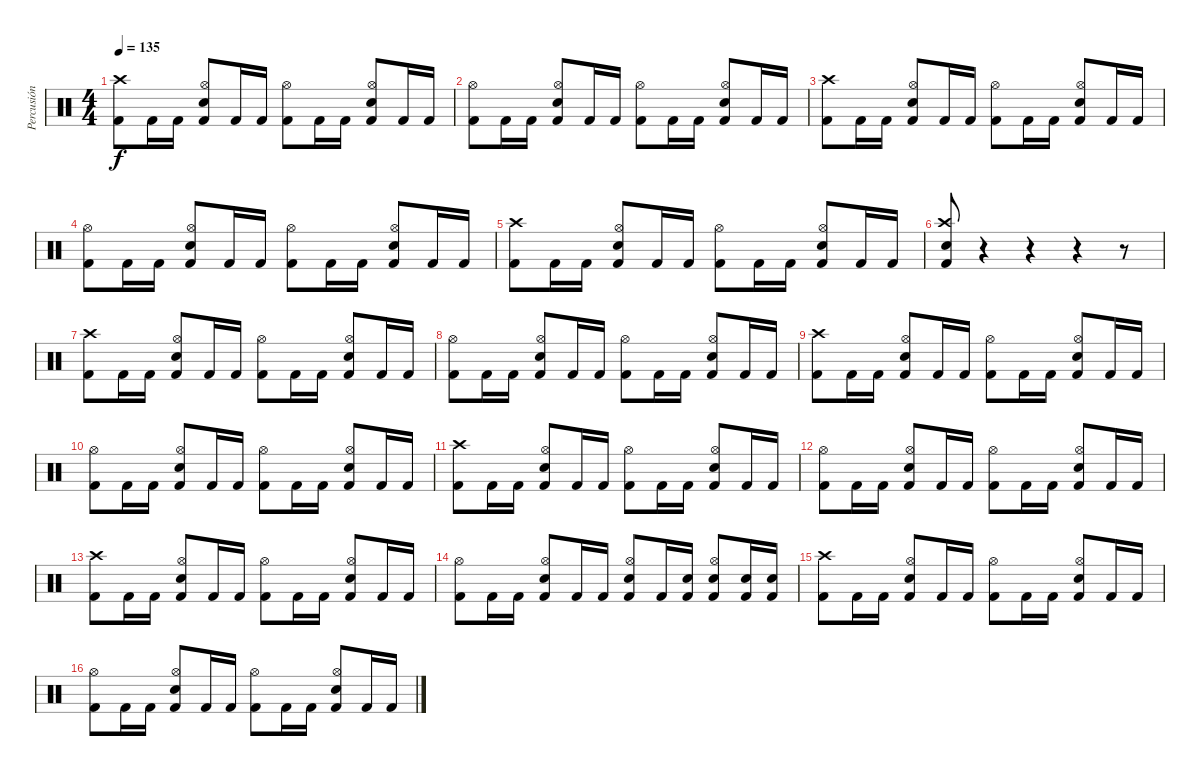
\track ("Percusión" "Percusión") {instrument percussion}
\staff {score}
\articulation defaults
\ts (4 4)
\tempo 135
\clef neutral
\ks c
("Kick (hit) 2" "Crash high (hit)").8{dy f} "Kick (hit) 2".16 "Kick (hit) 2".16 ("Kick (hit) 2" "Hi-Hat (open)" "Snare (hit) 2").8 "Kick (hit) 2".16 "Kick (hit) 2".16 ("Kick (hit) 2" "Hi-Hat (open)").8 "Kick (hit) 2".16 "Kick (hit) 2".16 ("Kick (hit) 2" "Hi-Hat (open)" "Snare (hit) 2").8 "Kick (hit) 2".16 "Kick (hit) 2".16 |
("Kick (hit) 2" "Hi-Hat (open)").8 "Kick (hit) 2".16 "Kick (hit) 2".16 ("Kick (hit) 2" "Hi-Hat (open)" "Snare (hit) 2").8 "Kick (hit) 2".16 "Kick (hit) 2".16 ("Kick (hit) 2" "Hi-Hat (open)").8 "Kick (hit) 2".16 "Kick (hit) 2".16 ("Kick (hit) 2" "Hi-Hat (open)" "Snare (hit) 2").8 "Kick (hit) 2".16 "Kick (hit) 2".16 |
("Kick (hit) 2" "Crash high (hit)").8 "Kick (hit) 2".16 "Kick (hit) 2".16 ("Kick (hit) 2" "Hi-Hat (open)" "Snare (hit) 2").8 "Kick (hit) 2".16 "Kick (hit) 2".16 ("Kick (hit) 2" "Hi-Hat (open)").8 "Kick (hit) 2".16 "Kick (hit) 2".16 ("Kick (hit) 2" "Hi-Hat (open)" "Snare (hit) 2").8 "Kick (hit) 2".16 "Kick (hit) 2".16 |
("Kick (hit) 2" "Hi-Hat (open)").8 "Kick (hit) 2".16 "Kick (hit) 2".16 ("Kick (hit) 2" "Hi-Hat (open)" "Snare (hit) 2").8 "Kick (hit) 2".16 "Kick (hit) 2".16 ("Kick (hit) 2" "Hi-Hat (open)").8 "Kick (hit) 2".16 "Kick (hit) 2".16 ("Kick (hit) 2" "Hi-Hat (open)" "Snare (hit) 2").8 "Kick (hit) 2".16 "Kick (hit) 2".16 |
("Kick (hit) 2" "Crash high (hit)").8 "Kick (hit) 2".16 "Kick (hit) 2".16 ("Kick (hit) 2" "Hi-Hat (open)" "Snare (hit) 2").8 "Kick (hit) 2".16 "Kick (hit) 2".16 ("Kick (hit) 2" "Hi-Hat (open)").8 "Kick (hit) 2".16 "Kick (hit) 2".16 ("Kick (hit) 2" "Hi-Hat (open)" "Snare (hit) 2").8 "Kick (hit) 2".16 "Kick (hit) 2".16 |
("Kick (hit) 2" "Snare (hit) 2" "Crash high (hit)").8 r.4 r.4 r.4 r.8 |
("Kick (hit) 2" "Crash high (hit)").8 "Kick (hit) 2".16 "Kick (hit) 2".16 ("Kick (hit) 2" "Hi-Hat (open)" "Snare (hit) 2").8 "Kick (hit) 2".16 "Kick (hit) 2".16 ("Kick (hit) 2" "Hi-Hat (open)").8 "Kick (hit) 2".16 "Kick (hit) 2".16 ("Kick (hit) 2" "Hi-Hat (open)" "Snare (hit) 2").8 "Kick (hit) 2".16 "Kick (hit) 2".16 |
("Kick (hit) 2" "Hi-Hat (open)").8 "Kick (hit) 2".16 "Kick (hit) 2".16 ("Kick (hit) 2" "Hi-Hat (open)" "Snare (hit) 2").8 "Kick (hit) 2".16 "Kick (hit) 2".16 ("Kick (hit) 2" "Hi-Hat (open)").8 "Kick (hit) 2".16 "Kick (hit) 2".16 ("Kick (hit) 2" "Hi-Hat (open)" "Snare (hit) 2").8 "Kick (hit) 2".16 "Kick (hit) 2".16 |
("Kick (hit) 2" "Crash high (hit)").8 "Kick (hit) 2".16 "Kick (hit) 2".16 ("Kick (hit) 2" "Hi-Hat (open)" "Snare (hit) 2").8 "Kick (hit) 2".16 "Kick (hit) 2".16 ("Kick (hit) 2" "Hi-Hat (open)").8 "Kick (hit) 2".16 "Kick (hit) 2".16 ("Kick (hit) 2" "Hi-Hat (open)" "Snare (hit) 2").8 "Kick (hit) 2".16 "Kick (hit) 2".16 |
("Kick (hit) 2" "Hi-Hat (open)").8 "Kick (hit) 2".16 "Kick (hit) 2".16 ("Kick (hit) 2" "Hi-Hat (open)" "Snare (hit) 2").8 "Kick (hit) 2".16 "Kick (hit) 2".16 ("Kick (hit) 2" "Hi-Hat (open)").8 "Kick (hit) 2".16 "Kick (hit) 2".16 ("Kick (hit) 2" "Hi-Hat (open)" "Snare (hit) 2").8 "Kick (hit) 2".16 "Kick (hit) 2".16 |
("Kick (hit) 2" "Crash high (hit)").8 "Kick (hit) 2".16 "Kick (hit) 2".16 ("Kick (hit) 2" "Hi-Hat (open)" "Snare (hit) 2").8 "Kick (hit) 2".16 "Kick (hit) 2".16 ("Kick (hit) 2" "Hi-Hat (open)").8 "Kick (hit) 2".16 "Kick (hit) 2".16 ("Kick (hit) 2" "Hi-Hat (open)" "Snare (hit) 2").8 "Kick (hit) 2".16 "Kick (hit) 2".16 |
("Kick (hit) 2" "Hi-Hat (open)").8 "Kick (hit) 2".16 "Kick (hit) 2".16 ("Kick (hit) 2" "Hi-Hat (open)" "Snare (hit) 2").8 "Kick (hit) 2".16 "Kick (hit) 2".16 ("Kick (hit) 2" "Hi-Hat (open)").8 "Kick (hit) 2".16 "Kick (hit) 2".16 ("Kick (hit) 2" "Hi-Hat (open)" "Snare (hit) 2").8 "Kick (hit) 2".16 "Kick (hit) 2".16 |
("Kick (hit) 2" "Crash high (hit)").8 "Kick (hit) 2".16 "Kick (hit) 2".16 ("Kick (hit) 2" "Hi-Hat (open)" "Snare (hit) 2").8 "Kick (hit) 2".16 "Kick (hit) 2".16 ("Kick (hit) 2" "Hi-Hat (open)").8 "Kick (hit) 2".16 "Kick (hit) 2".16 ("Kick (hit) 2" "Hi-Hat (open)" "Snare (hit) 2").8 "Kick (hit) 2".16 "Kick (hit) 2".16 |
("Kick (hit) 2" "Hi-Hat (open)").8 "Kick (hit) 2".16 "Kick (hit) 2".16 ("Kick (hit) 2" "Hi-Hat (open)" "Snare (hit) 2").8 "Kick (hit) 2".16 "Kick (hit) 2".16 ("Kick (hit) 2" "Hi-Hat (open)" "Snare (hit) 2").8 "Kick (hit) 2".16 ("Kick (hit) 2" "Snare (hit) 2").16 ("Kick (hit) 2" "Hi-Hat (open)" "Snare (hit) 2").8 ("Kick (hit) 2" "Snare (hit) 2").16 ("Kick (hit) 2" "Snare (hit) 2").16 |
("Kick (hit) 2" "Crash high (hit)").8 "Kick (hit) 2".16 "Kick (hit) 2".16 ("Kick (hit) 2" "Hi-Hat (open)" "Snare (hit) 2").8 "Kick (hit) 2".16 "Kick (hit) 2".16 ("Kick (hit) 2" "Hi-Hat (open)").8 "Kick (hit) 2".16 "Kick (hit) 2".16 ("Kick (hit) 2" "Hi-Hat (open)" "Snare (hit) 2").8 "Kick (hit) 2".16 "Kick (hit) 2".16 |
("Kick (hit) 2" "Hi-Hat (open)").8 "Kick (hit) 2".16 "Kick (hit) 2".16 ("Kick (hit) 2" "Hi-Hat (open)" "Snare (hit) 2").8 "Kick (hit) 2".16 "Kick (hit) 2".16 ("Kick (hit) 2" "Hi-Hat (open)").8 "Kick (hit) 2".16 "Kick (hit) 2".16 ("Kick (hit) 2" "Hi-Hat (open)" "Snare (hit) 2").8 "Kick (hit) 2".16 "Kick (hit) 2".16
